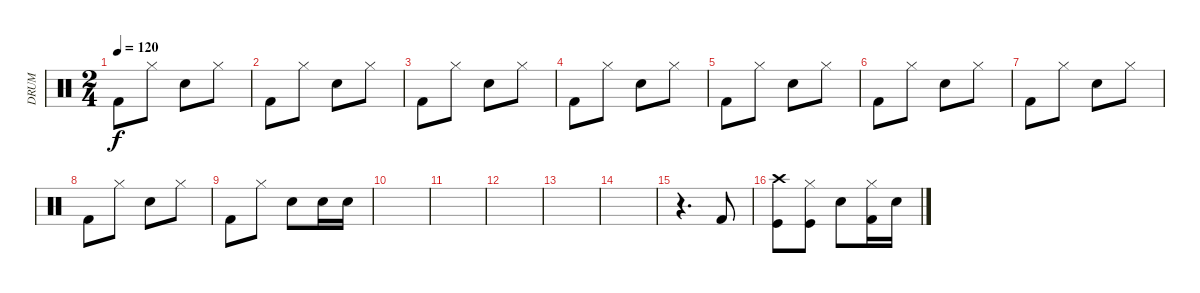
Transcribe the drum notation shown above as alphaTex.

\track ("DRUM" "DRUM") {instrument percussion}
\staff {score}
\articulation defaults
\ts (2 4)
\tempo 120
\clef neutral
\ks c "Kick (hit) 2".8{dy f} "Hi-Hat (closed)".8 "Electric Snare (hit)".8 "Hi-Hat (closed)".8
|
"Kick (hit) 2".8 "Hi-Hat (closed)".8 "Electric Snare (hit)".8 "Hi-Hat (closed)".8 |
"Kick (hit) 2".8 "Hi-Hat (closed)".8 "Electric Snare (hit)".8 "Hi-Hat (closed)".8 |
"Kick (hit) 2".8 "Hi-Hat (closed)".8 "Electric Snare (hit)".8 "Hi-Hat (closed)".8 |
"Kick (hit) 2".8 "Hi-Hat (closed)".8 "Electric Snare (hit)".8 "Hi-Hat (closed)".8 |
"Kick (hit) 2".8 "Hi-Hat (closed)".8 "Electric Snare (hit)".8 "Hi-Hat (closed)".8 |
"Kick (hit) 2".8 "Hi-Hat (closed)".8 "Electric Snare (hit)".8 "Hi-Hat (closed)".8 |
"Kick (hit) 2".8 "Hi-Hat (closed)".8 "Electric Snare (hit)".8 "Hi-Hat (closed)".8 |
"Kick (hit) 2".8 "Hi-Hat (closed)".8 "Electric Snare (hit)".8 "Electric Snare (hit)".16 "Electric Snare (hit)".16 |
|
|
|
|
|
r.4{d} "Kick (hit) 2".8 |
("Crash high (hit)" "Kick (hit)").8 ("Hi-Hat (closed)" "Kick (hit)").8 "Electric Snare (hit)".8 ("Hi-Hat (closed)" "Kick (hit) 2").16 "Snare (hit) 2".16
